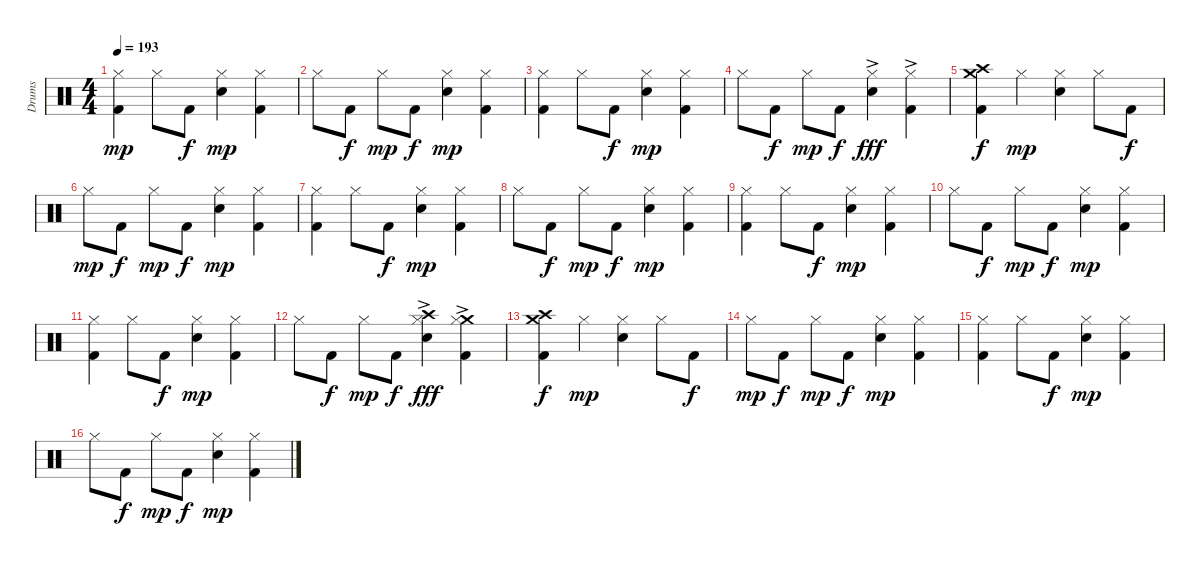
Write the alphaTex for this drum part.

\track ("Drums" "Drums") {instrument percussion}
\staff {score}
\articulation defaults
\ts (4 4)
\tempo 193
\clef neutral
\ks c
("Hi-Hat (closed)" "Kick (hit) 2").4{dy mp} "Hi-Hat (closed)".8 "Kick (hit) 2".8{dy f} ("Hi-Hat (closed)" "Snare (hit) 2").4{dy mp} ("Hi-Hat (closed)" "Kick (hit) 2").4 |
"Hi-Hat (closed)".8 "Kick (hit) 2".8{dy f} "Hi-Hat (closed)".8{dy mp} "Kick (hit) 2".8{dy f} ("Hi-Hat (closed)" "Snare (hit) 2").4{dy mp} ("Hi-Hat (closed)" "Kick (hit) 2").4 |
("Hi-Hat (closed)" "Kick (hit) 2").4 "Hi-Hat (closed)".8 "Kick (hit) 2".8{dy f} ("Hi-Hat (closed)" "Snare (hit) 2").4{dy mp} ("Hi-Hat (closed)" "Kick (hit) 2").4 |
"Hi-Hat (closed)".8 "Kick (hit) 2".8{dy f} "Hi-Hat (closed)".8{dy mp} "Kick (hit) 2".8{dy f} ("Hi-Hat (closed)" "Snare (hit) 2"{ac}).4{dy fff} ("Hi-Hat (closed)" "Kick (hit) 2"{ac}).4 |
("Crash medium (hit)" "Crash high (hit)" "Kick (hit) 2").4{dy f} "Hi-Hat (closed)".4{dy mp} ("Hi-Hat (closed)" "Snare (hit) 2").4 "Hi-Hat (closed)".8 "Kick (hit) 2".8{dy f} |
"Hi-Hat (closed)".8{dy mp} "Kick (hit) 2".8{dy f} "Hi-Hat (closed)".8{dy mp} "Kick (hit) 2".8{dy f} ("Hi-Hat (closed)" "Snare (hit) 2").4{dy mp} ("Hi-Hat (closed)" "Kick (hit) 2").4 |
("Hi-Hat (closed)" "Kick (hit) 2").4 "Hi-Hat (closed)".8 "Kick (hit) 2".8{dy f} ("Hi-Hat (closed)" "Snare (hit) 2").4{dy mp} ("Hi-Hat (closed)" "Kick (hit) 2").4 |
"Hi-Hat (closed)".8 "Kick (hit) 2".8{dy f} "Hi-Hat (closed)".8{dy mp} "Kick (hit) 2".8{dy f} ("Hi-Hat (closed)" "Snare (hit) 2").4{dy mp} ("Hi-Hat (closed)" "Kick (hit) 2").4 |
("Hi-Hat (closed)" "Kick (hit) 2").4 "Hi-Hat (closed)".8 "Kick (hit) 2".8{dy f} ("Hi-Hat (closed)" "Snare (hit) 2").4{dy mp} ("Hi-Hat (closed)" "Kick (hit) 2").4 |
"Hi-Hat (closed)".8 "Kick (hit) 2".8{dy f} "Hi-Hat (closed)".8{dy mp} "Kick (hit) 2".8{dy f} ("Hi-Hat (closed)" "Snare (hit) 2").4{dy mp} ("Hi-Hat (closed)" "Kick (hit) 2").4 |
("Hi-Hat (closed)" "Kick (hit) 2").4 "Hi-Hat (closed)".8 "Kick (hit) 2".8{dy f} ("Hi-Hat (closed)" "Snare (hit) 2").4{dy mp} ("Hi-Hat (closed)" "Kick (hit) 2").4 |
"Hi-Hat (closed)".8 "Kick (hit) 2".8{dy f} "Hi-Hat (closed)".8{dy mp} "Kick (hit) 2".8{dy f} ("Crash high (hit)" "Hi-Hat (closed)" "Snare (hit) 2"{ac}).4{dy fff} ("Crash medium (hit)" "Hi-Hat (closed)" "Kick (hit) 2"{ac}).4 |
("Crash medium (hit)" "Crash high (hit)" "Kick (hit) 2").4{dy f} "Hi-Hat (closed)".4{dy mp} ("Hi-Hat (closed)" "Snare (hit) 2").4 "Hi-Hat (closed)".8 "Kick (hit) 2".8{dy f} |
"Hi-Hat (closed)".8{dy mp} "Kick (hit) 2".8{dy f} "Hi-Hat (closed)".8{dy mp} "Kick (hit) 2".8{dy f} ("Hi-Hat (closed)" "Snare (hit) 2").4{dy mp} ("Hi-Hat (closed)" "Kick (hit) 2").4 |
("Hi-Hat (closed)" "Kick (hit) 2").4 "Hi-Hat (closed)".8 "Kick (hit) 2".8{dy f} ("Hi-Hat (closed)" "Snare (hit) 2").4{dy mp} ("Hi-Hat (closed)" "Kick (hit) 2").4 |
"Hi-Hat (closed)".8 "Kick (hit) 2".8{dy f} "Hi-Hat (closed)".8{dy mp} "Kick (hit) 2".8{dy f} ("Hi-Hat (closed)" "Snare (hit) 2").4{dy mp} ("Hi-Hat (closed)" "Kick (hit) 2").4
